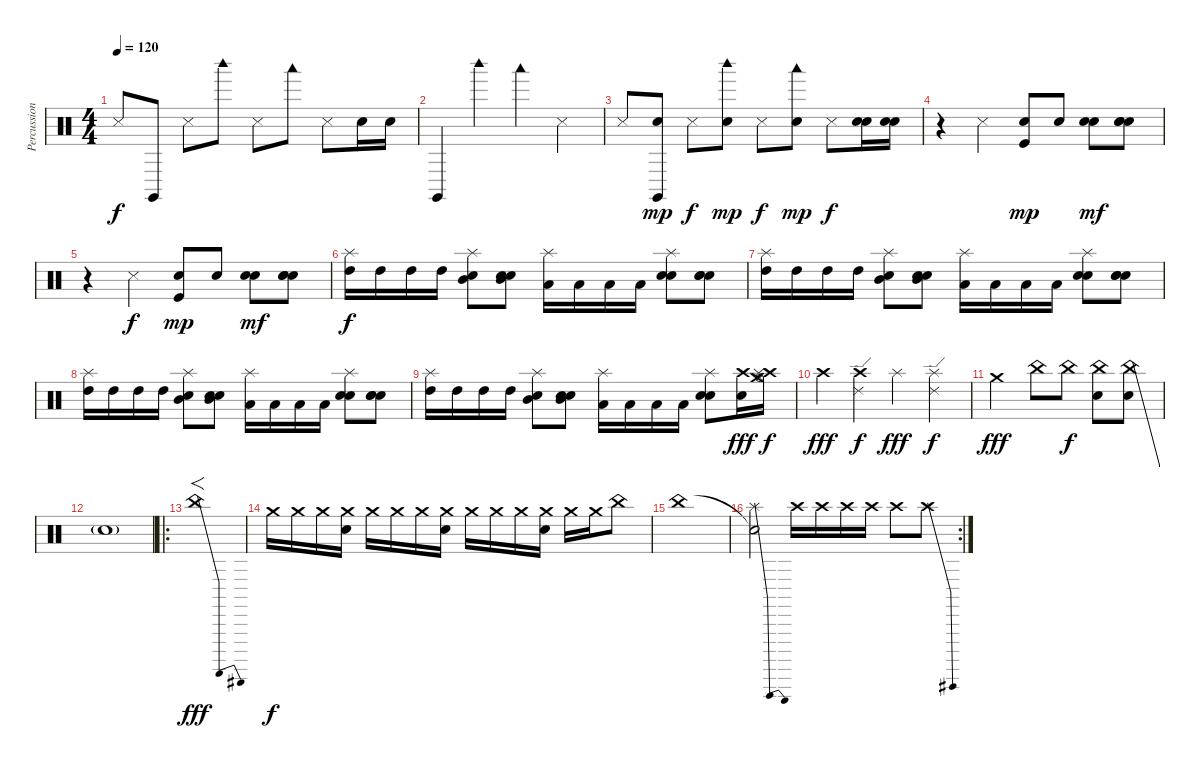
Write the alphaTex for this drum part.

\track ("Percussions" "Percussion") {instrument percussion}
\staff {score}
\articulation defaults
\ts (4 4)
\tempo 120
\clef neutral
\ks c "Snare (side stick) 3".8{dy f} "Claves (hit)".8 "Snare (side stick) 3".8 "Woodblock high (hit)".8 "Snare (side stick) 3".8 "Woodblock low (hit)".8 "Snare (side stick) 3".8 "Hand Clap (hit)".16 "Hand Clap (hit)".16
|
"Claves (hit)".4 "Woodblock high (hit)".4 "Woodblock low (hit)".4 "Snare (side stick) 3".4 |
"Snare (side stick) 3".8 ("Claves (hit)" "Hand Clap (hit)").8{dy mp} "Snare (side stick) 3".8{dy f} ("Woodblock high (hit)" "Hand Clap (hit)").8{dy mp} "Snare (side stick) 3".8{dy f} ("Woodblock low (hit)" "Hand Clap (hit)").8{dy mp} "Snare (side stick) 3".8{dy f} ("Hand Clap (hit)" "Hand Clap (hit)").16 ("Hand Clap (hit)" "Hand Clap (hit)").16 |
r.4 "Snare (side stick) 3".4 ("Kick (hit)" "Hand Clap (hit)").8{dy mp} "Hand Clap (hit)".8 ("Snare (hit) 2" "Hand Clap (hit)").8{dy mf} ("Snare (hit) 2" "Snare (hit) 2" "Hand Clap (hit)").8 |
r.4 "Snare (side stick) 3".4{dy f} ("Kick (hit)" "Hand Clap (hit)").8{dy mp} "Hand Clap (hit)".8 ("Snare (hit) 2" "Hand Clap (hit)").8{dy mf} ("Snare (hit) 2" "Snare (hit) 2" "Hand Clap (hit)").8 |
("Splash (hit)" "High Tom (hit)").16{dy f} "High Tom (hit)".16 "High Tom (hit)".16 "High Tom (hit)".16 ("Splash (hit)" "Mid Tom (hit)" "Hand Clap (hit)").8 ("Mid Tom (hit)" "Hand Clap (hit)" "Hand Clap (hit)").8 ("Splash (hit)" "Low Tom (hit)").16 "Low Tom (hit)".16 "Low Tom (hit)".16 "Low Tom (hit)".16 ("Splash (hit)" "Snare (hit) 2" "Hand Clap (hit)").8 ("Snare (hit) 2" "Hand Clap (hit)" "Hand Clap (hit)").8 |
("Splash (hit)" "High Tom (hit)").16 "High Tom (hit)".16 "High Tom (hit)".16 "High Tom (hit)".16 ("Splash (hit)" "Mid Tom (hit)" "Hand Clap (hit)").8 ("Mid Tom (hit)" "Hand Clap (hit)" "Hand Clap (hit)").8 ("Splash (hit)" "Low Tom (hit)").16 "Low Tom (hit)".16 "Low Tom (hit)".16 "Low Tom (hit)".16 ("Splash (hit)" "Snare (hit) 2" "Hand Clap (hit)").8 ("Snare (hit) 2" "Hand Clap (hit)" "Hand Clap (hit)").8 |
("Splash (hit)" "High Tom (hit)").16 "High Tom (hit)".16 "High Tom (hit)".16 "High Tom (hit)".16 ("Splash (hit)" "Mid Tom (hit)" "Hand Clap (hit)").8 ("Mid Tom (hit)" "Hand Clap (hit)" "Hand Clap (hit)").8 ("Splash (hit)" "Low Tom (hit)").16 "Low Tom (hit)".16 "Low Tom (hit)".16 "Low Tom (hit)".16 ("Splash (hit)" "Snare (hit) 2" "Hand Clap (hit)").8 ("Snare (hit) 2" "Hand Clap (hit)" "Hand Clap (hit)").8 |
("Splash (hit)" "High Tom (hit)").16 "High Tom (hit)".16 "High Tom (hit)".16 "High Tom (hit)".16 ("Splash (hit)" "Mid Tom (hit)" "Hand Clap (hit)").8 ("Mid Tom (hit)" "Hand Clap (hit)" "Hand Clap (hit)").8 ("Splash (hit)" "Low Tom (hit)").16 "Low Tom (hit)".16 "Low Tom (hit)".16 "Low Tom (hit)".16 ("Splash (hit)" "Snare (hit) 2" "Hand Clap (hit)").8 ("Crash high (hit)" "Hand Clap (hit)").16{dy fff} ("Crash high (hit)" "Splash (hit)" "Crash medium (hit)" "Hi-Hat (open)").16{dy f} |
"Crash high (hit)".4{dy fff} ("Crash high (hit)" "Ride (edge) 2").4{dy f} "Splash (hit)".4{dy fff} ("Splash (hit)" "Ride (edge) 2").4{dy f} |
"Crash medium (hit)".2{dy fff} "China (hit)".8 "China (hit)".8{dy f} ("China (hit)" "Hand Clap (hit)").8 ("China (hit)"{be (bendrelease 0 0 30 4 30 4 60 1)} "Hand Clap (hit)").8 |
"Snare (hit)"{t}.1 |
\ro "China (hit)"{be (bendrelease 0 0 30 4 30 4 60 0)}.1{f dy fff}
|
"Crash medium (hit)".16{dy f} "Crash medium (hit)".16 "Crash medium (hit)".16 ("Crash medium (hit)" "Hand Clap (hit)").16 "Crash medium (hit)".16 "Crash medium (hit)".16 "Crash medium (hit)".16 ("Crash medium (hit)" "Hand Clap (hit)").16 "Crash medium (hit)".16 "Crash medium (hit)".16 "Crash medium (hit)".16 ("Crash medium (hit)" "Hand Clap (hit)").16 "Crash medium (hit)".16 "Crash medium (hit)".16 "China (hit)".8 |
"China (hit)".1 |
\rc 2
("Snare (hit)"{t} "Splash (hit)"{be (bendrelease 0 0 30 4 30 4 60 0)}).2 "Crash high (hit)".16 "Crash high (hit)".16 "Crash high (hit)".16 "Crash high (hit)".16 "Crash high (hit)".8 "Crash high (hit)"{be (bend 0 0 60 4)}.8
